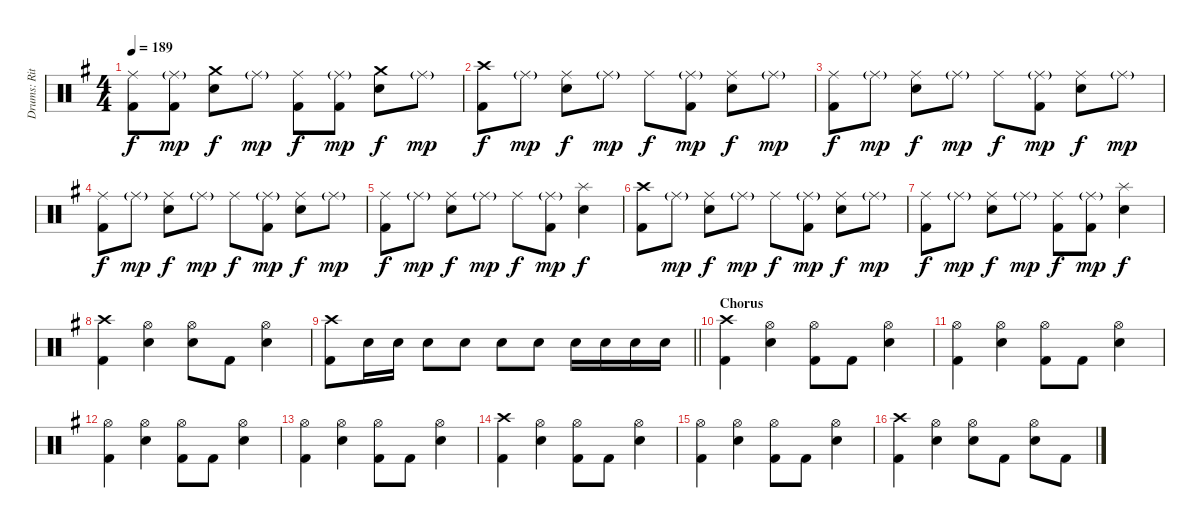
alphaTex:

\track ("Drums: Ritsu Tainaka" "Drums: Rit") {instrument percussion}
\staff {score}
\articulation defaults
\ts (4 4)
\tempo 189
\clef neutral
\ks g
("Ride (middle)" "Kick (hit) 2").8{dy f} ("Ride (middle)"{g} "Kick (hit) 2").8{dy mp} ("Crash medium (hit)" "Electric Snare (hit)").8{dy f} "Ride (middle)"{g}.8{dy mp} ("Ride (middle)" "Kick (hit) 2").8{dy f} ("Ride (middle)"{g} "Kick (hit) 2").8{dy mp} ("Crash medium (hit)" "Electric Snare (hit)").8{dy f} "Ride (middle)"{g}.8{dy mp} |
("Crash high (hit)" "Kick (hit) 2").8{dy f} "Ride (middle)"{g}.8{dy mp} ("Ride (middle)" "Electric Snare (hit)").8{dy f} "Ride (middle)"{g}.8{dy mp} "Ride (middle)".8{dy f} ("Ride (middle)"{g} "Kick (hit) 2").8{dy mp} ("Ride (middle)" "Electric Snare (hit)").8{dy f} "Ride (middle)"{g}.8{dy mp} |
("Ride (middle)" "Kick (hit) 2").8{dy f} "Ride (middle)"{g}.8{dy mp} ("Ride (middle)" "Electric Snare (hit)").8{dy f} "Ride (middle)"{g}.8{dy mp} "Ride (middle)".8{dy f} ("Ride (middle)"{g} "Kick (hit) 2").8{dy mp} ("Ride (middle)" "Electric Snare (hit)").8{dy f} "Ride (middle)"{g}.8{dy mp} |
("Ride (middle)" "Kick (hit) 2").8{dy f} "Ride (middle)"{g}.8{dy mp} ("Ride (middle)" "Electric Snare (hit)").8{dy f} "Ride (middle)"{g}.8{dy mp} "Ride (middle)".8{dy f} ("Ride (middle)"{g} "Kick (hit) 2").8{dy mp} ("Ride (middle)" "Electric Snare (hit)").8{dy f} "Ride (middle)"{g}.8{dy mp} |
("Ride (middle)" "Kick (hit) 2").8{dy f} "Ride (middle)"{g}.8{dy mp} ("Ride (middle)" "Electric Snare (hit)").8{dy f} "Ride (middle)"{g}.8{dy mp} "Ride (middle)".8{dy f} ("Ride (middle)"{g} "Kick (hit) 2").8{dy mp} ("Splash (hit)" "Electric Snare (hit)").4{dy f} |
("Crash high (hit)" "Kick (hit) 2").8 "Ride (middle)"{g}.8{dy mp} ("Ride (middle)" "Electric Snare (hit)").8{dy f} "Ride (middle)"{g}.8{dy mp} "Ride (middle)".8{dy f} ("Ride (middle)"{g} "Kick (hit) 2").8{dy mp} ("Ride (middle)" "Electric Snare (hit)").8{dy f} "Ride (middle)"{g}.8{dy mp} |
("Ride (middle)" "Kick (hit) 2").8{dy f} "Ride (middle)"{g}.8{dy mp} ("Ride (middle)" "Electric Snare (hit)").8{dy f} "Ride (middle)"{g}.8{dy mp} ("Ride (middle)" "Kick (hit) 2").8{dy f} ("Ride (middle)"{g} "Kick (hit) 2").8{dy mp} ("Splash (hit)" "Electric Snare (hit)").4{dy f} |
("Crash high (hit)" "Kick (hit) 2").4 ("Hi-Hat (open)" "Electric Snare (hit)").4 ("Hi-Hat (open)" "Electric Snare (hit)").8 "Kick (hit) 2".8 ("Hi-Hat (open)" "Electric Snare (hit)").4 |
\barLineRight lightlight
("Crash high (hit)" "Kick (hit) 2").8 "Electric Snare (hit)".16 "Electric Snare (hit)".16 "Electric Snare (hit)".8 "Electric Snare (hit)".8 "Electric Snare (hit)".8 "Electric Snare (hit)".8 "Electric Snare (hit)".16 "Electric Snare (hit)".16 "Electric Snare (hit)".16 "Electric Snare (hit)".16 |
\section ("" "Chorus")
("Crash high (hit)" "Kick (hit) 2").4 ("Hi-Hat (open)" "Electric Snare (hit)").4 ("Hi-Hat (open)" "Kick (hit) 2").8 "Kick (hit) 2".8 ("Hi-Hat (open)" "Electric Snare (hit)").4 |
("Hi-Hat (open)" "Kick (hit) 2").4 ("Hi-Hat (open)" "Electric Snare (hit)").4 ("Hi-Hat (open)" "Kick (hit) 2").8 "Kick (hit) 2".8 ("Hi-Hat (open)" "Electric Snare (hit)").4 |
("Hi-Hat (open)" "Kick (hit) 2").4 ("Hi-Hat (open)" "Electric Snare (hit)").4 ("Hi-Hat (open)" "Kick (hit) 2").8 "Kick (hit) 2".8 ("Hi-Hat (open)" "Electric Snare (hit)").4 |
("Hi-Hat (open)" "Kick (hit) 2").4 ("Hi-Hat (open)" "Electric Snare (hit)").4 ("Hi-Hat (open)" "Kick (hit) 2").8 "Kick (hit) 2".8 ("Hi-Hat (open)" "Electric Snare (hit)").4 |
("Crash high (hit)" "Kick (hit) 2").4 ("Hi-Hat (open)" "Electric Snare (hit)").4 ("Hi-Hat (open)" "Kick (hit) 2").8 "Kick (hit) 2".8 ("Hi-Hat (open)" "Electric Snare (hit)").4 |
("Hi-Hat (open)" "Kick (hit) 2").4 ("Hi-Hat (open)" "Electric Snare (hit)").4 ("Hi-Hat (open)" "Kick (hit) 2").8 "Kick (hit) 2".8 ("Hi-Hat (open)" "Electric Snare (hit)").4 |
("Crash high (hit)" "Kick (hit) 2").4 ("Hi-Hat (open)" "Electric Snare (hit)").4 ("Hi-Hat (open)" "Electric Snare (hit)").8 "Kick (hit) 2".8 ("Hi-Hat (open)" "Electric Snare (hit)").8 "Kick (hit) 2".8
